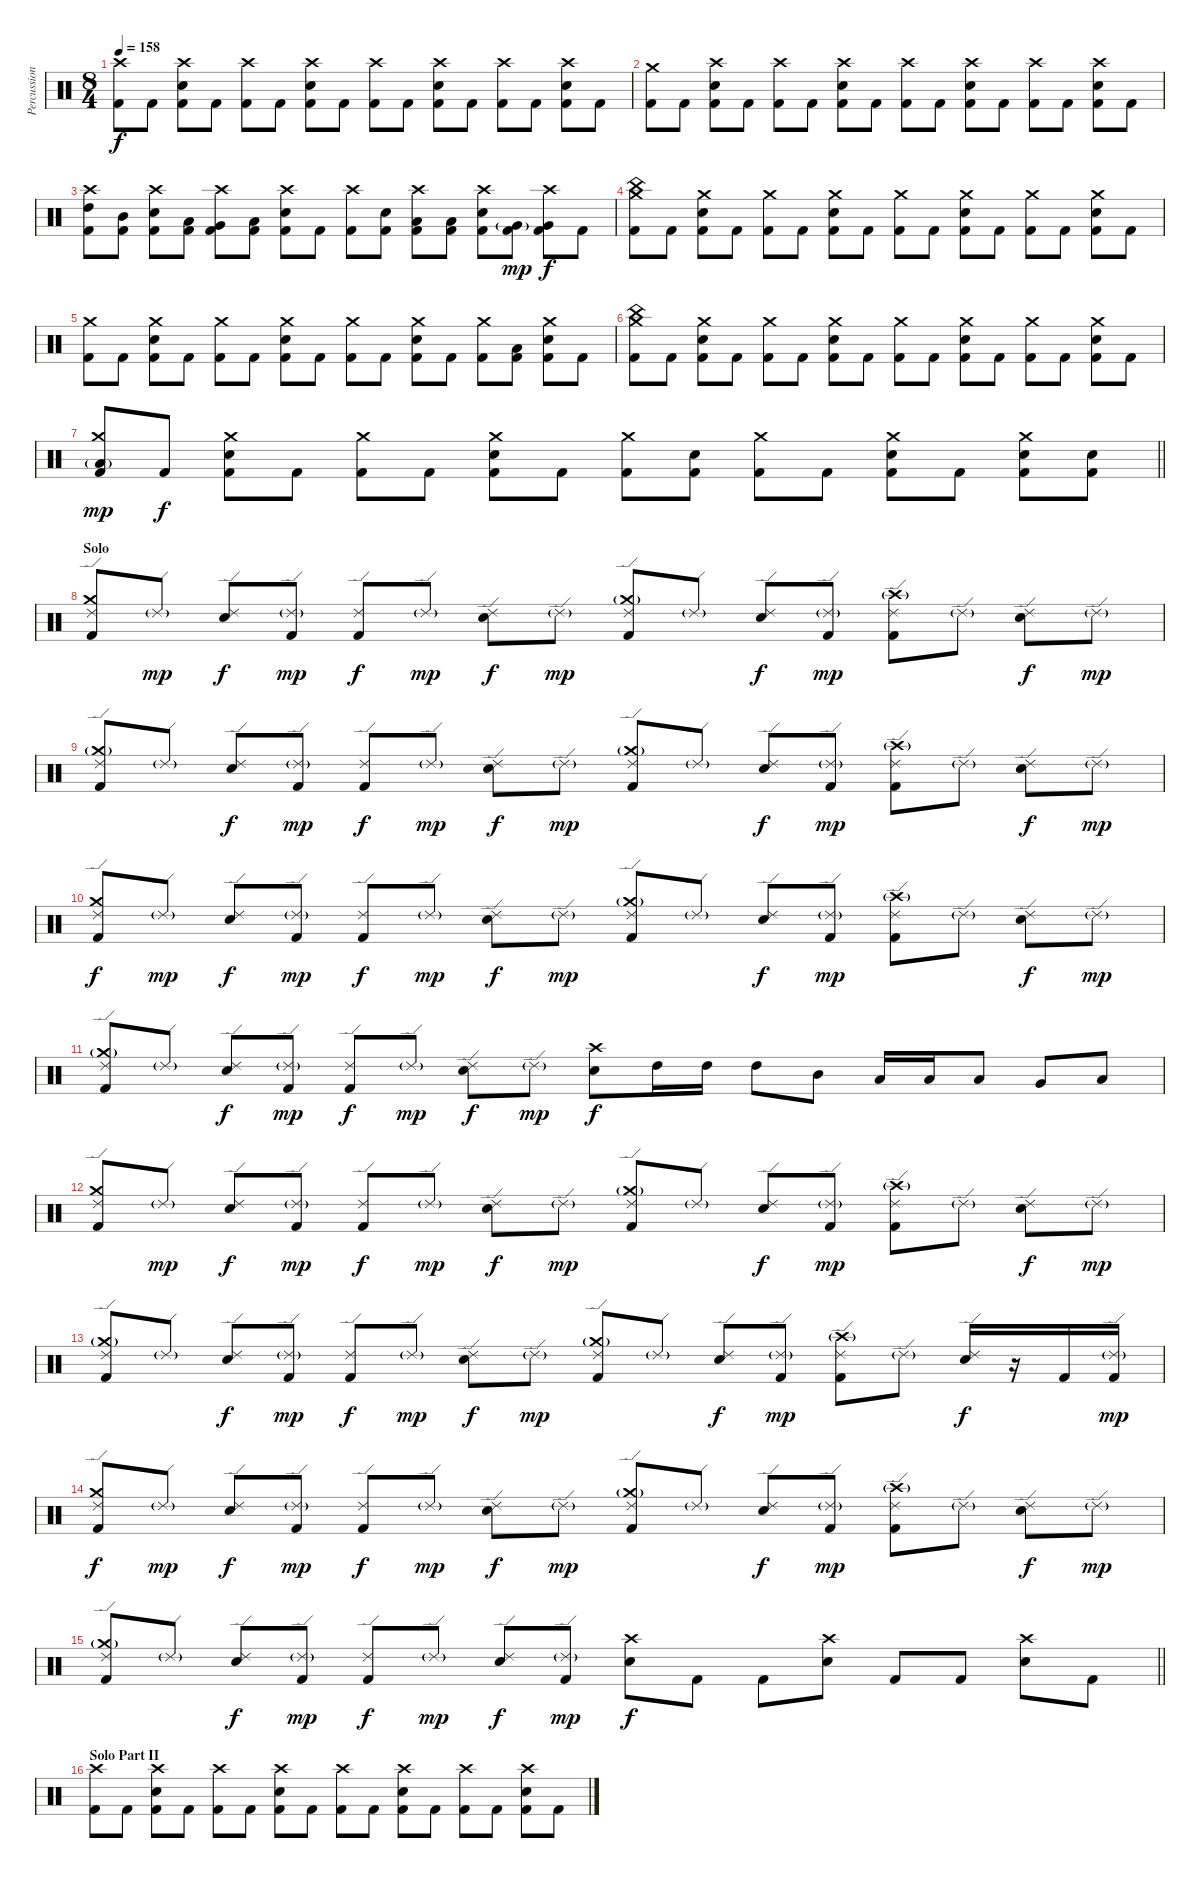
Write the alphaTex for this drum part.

\track ("Percussion" "Percussion") {instrument percussion}
\staff {score}
\articulation defaults
\ts (8 4)
\tempo 158
\clef neutral
\ks c
("Crash high (hit)" "Kick (hit) 2").8{dy f} "Kick (hit) 2".8 ("Crash high (hit)" "Electric Snare (hit)" "Kick (hit) 2").8 "Kick (hit) 2".8 ("Crash high (hit)" "Kick (hit) 2").8 "Kick (hit) 2".8 ("Crash high (hit)" "Electric Snare (hit)" "Kick (hit) 2").8 "Kick (hit) 2".8 ("Crash high (hit)" "Kick (hit) 2").8 "Kick (hit) 2".8 ("Crash high (hit)" "Electric Snare (hit)" "Kick (hit) 2").8 "Kick (hit) 2".8 ("Crash high (hit)" "Kick (hit) 2").8 "Kick (hit) 2".8 ("Crash high (hit)" "Electric Snare (hit)" "Kick (hit) 2").8 "Kick (hit) 2".8 |
("Crash medium (hit)" "Kick (hit) 2").8 "Kick (hit) 2".8 ("Crash high (hit)" "Electric Snare (hit)" "Kick (hit) 2").8 "Kick (hit) 2".8 ("Crash high (hit)" "Kick (hit) 2").8 "Kick (hit) 2".8 ("Crash high (hit)" "Electric Snare (hit)" "Kick (hit) 2").8 "Kick (hit) 2".8 ("Crash high (hit)" "Kick (hit) 2").8 "Kick (hit) 2".8 ("Crash high (hit)" "Electric Snare (hit)" "Kick (hit) 2").8 "Kick (hit) 2".8 ("Crash high (hit)" "Kick (hit) 2").8 "Kick (hit) 2".8 ("Crash high (hit)" "Electric Snare (hit)" "Kick (hit) 2").8 "Kick (hit) 2".8 |
("Crash high (hit)" "High Tom (hit)" "Kick (hit) 2").8 ("Mid Tom (hit)" "Kick (hit) 2").8 ("Crash high (hit)" "Electric Snare (hit)" "Kick (hit) 2").8 ("Low Tom (hit)" "Kick (hit) 2").8 ("Crash high (hit)" "Very Low Tom (hit)" "Kick (hit) 2").8 ("Low Floor Tom (hit)" "Kick (hit) 2").8 ("Crash high (hit)" "Electric Snare (hit)" "Kick (hit) 2").8 "Kick (hit) 2".8 ("Crash high (hit)" "Kick (hit) 2").8 ("Electric Snare (hit)" "Kick (hit) 2").8 ("Crash high (hit)" "Low Tom (hit)" "Kick (hit) 2").8 ("Low Tom (hit)" "Kick (hit) 2").8 ("Crash high (hit)" "Electric Snare (hit)" "Kick (hit) 2").8 ("Very Low Tom (hit)"{g} "Kick (hit) 2").8{dy mp} ("Crash high (hit)" "Very Low Tom (hit)" "Kick (hit) 2").8{dy f} "Kick (hit) 2".8 |
("Crash medium (hit)" "China (hit)" "Kick (hit) 2").8 "Kick (hit) 2".8 ("Crash medium (hit)" "Electric Snare (hit)" "Kick (hit) 2").8 "Kick (hit) 2".8 ("Crash medium (hit)" "Kick (hit) 2").8 "Kick (hit) 2".8 ("Crash medium (hit)" "Electric Snare (hit)" "Kick (hit) 2").8 "Kick (hit) 2".8 ("Crash medium (hit)" "Kick (hit) 2").8 "Kick (hit) 2".8 ("Crash medium (hit)" "Electric Snare (hit)" "Kick (hit) 2").8 "Kick (hit) 2".8 ("Crash medium (hit)" "Kick (hit) 2").8 "Kick (hit) 2".8 ("Crash medium (hit)" "Electric Snare (hit)" "Kick (hit) 2").8 "Kick (hit) 2".8 |
("Crash medium (hit)" "Kick (hit) 2").8 "Kick (hit) 2".8 ("Crash medium (hit)" "Electric Snare (hit)" "Kick (hit) 2").8 "Kick (hit) 2".8 ("Crash medium (hit)" "Kick (hit) 2").8 "Kick (hit) 2".8 ("Crash medium (hit)" "Electric Snare (hit)" "Kick (hit) 2").8 "Kick (hit) 2".8 ("Crash medium (hit)" "Kick (hit) 2").8 "Kick (hit) 2".8 ("Crash medium (hit)" "Electric Snare (hit)" "Kick (hit) 2").8 "Kick (hit) 2".8 ("Crash medium (hit)" "Kick (hit) 2").8 ("Low Tom (hit)" "Kick (hit) 2").8 ("Crash medium (hit)" "Electric Snare (hit)" "Kick (hit) 2").8 "Kick (hit) 2".8 |
("Crash medium (hit)" "China (hit)" "Kick (hit) 2").8 "Kick (hit) 2".8 ("Crash medium (hit)" "Electric Snare (hit)" "Kick (hit) 2").8 "Kick (hit) 2".8 ("Crash medium (hit)" "Kick (hit) 2").8 "Kick (hit) 2".8 ("Crash medium (hit)" "Electric Snare (hit)" "Kick (hit) 2").8 "Kick (hit) 2".8 ("Crash medium (hit)" "Kick (hit) 2").8 "Kick (hit) 2".8 ("Crash medium (hit)" "Electric Snare (hit)" "Kick (hit) 2").8 "Kick (hit) 2".8 ("Crash medium (hit)" "Kick (hit) 2").8 "Kick (hit) 2".8 ("Crash medium (hit)" "Electric Snare (hit)" "Kick (hit) 2").8 "Kick (hit) 2".8 |
\barLineRight lightlight
("Crash medium (hit)" "Low Tom (hit)"{g} "Kick (hit) 2").8{dy mp} "Kick (hit) 2".8{dy f} ("Crash medium (hit)" "Electric Snare (hit)" "Kick (hit) 2").8 "Kick (hit) 2".8 ("Crash medium (hit)" "Kick (hit) 2").8 "Kick (hit) 2".8 ("Crash medium (hit)" "Electric Snare (hit)" "Kick (hit) 2").8 "Kick (hit) 2".8 ("Crash medium (hit)" "Kick (hit) 2").8 ("Electric Snare (hit)" "Kick (hit) 2").8 ("Crash medium (hit)" "Kick (hit) 2").8 "Kick (hit) 2".8 ("Crash medium (hit)" "Electric Snare (hit)" "Kick (hit) 2").8 "Kick (hit) 2".8 ("Crash medium (hit)" "Electric Snare (hit)" "Kick (hit) 2").8 ("Electric Snare (hit)" "Kick (hit) 2").8 |
\section ("" "Solo")
("Crash medium (hit)" "Ride (edge) 2" "Kick (hit) 2").8 "Ride (edge) 2"{g}.8{dy mp} ("Ride (edge) 2" "Electric Snare (hit)").8{dy f} ("Ride (edge) 2"{g} "Kick (hit) 2").8{dy mp} ("Ride (edge) 2" "Kick (hit) 2").8{dy f} "Ride (edge) 2"{g}.8{dy mp} ("Ride (edge) 2" "Electric Snare (hit)").8{dy f} "Ride (edge) 2"{g}.8{dy mp} ("Crash medium (hit)"{g} "Ride (edge) 2" "Kick (hit) 2").8 "Ride (edge) 2"{g}.8 ("Ride (edge) 2" "Electric Snare (hit)").8{dy f} ("Ride (edge) 2"{g} "Kick (hit) 2").8{dy mp} ("Crash high (hit)"{g} "Ride (edge) 2" "Kick (hit) 2").8 "Ride (edge) 2"{g}.8 ("Ride (edge) 2" "Electric Snare (hit)").8{dy f} "Ride (edge) 2"{g}.8{dy mp} |
("Crash medium (hit)"{g} "Ride (edge) 2" "Kick (hit) 2").8 "Ride (edge) 2"{g}.8 ("Ride (edge) 2" "Electric Snare (hit)").8{dy f} ("Ride (edge) 2"{g} "Kick (hit) 2").8{dy mp} ("Ride (edge) 2" "Kick (hit) 2").8{dy f} "Ride (edge) 2"{g}.8{dy mp} ("Ride (edge) 2" "Electric Snare (hit)").8{dy f} "Ride (edge) 2"{g}.8{dy mp} ("Crash medium (hit)"{g} "Ride (edge) 2" "Kick (hit) 2").8 "Ride (edge) 2"{g}.8 ("Ride (edge) 2" "Electric Snare (hit)").8{dy f} ("Ride (edge) 2"{g} "Kick (hit) 2").8{dy mp} ("Crash high (hit)"{g} "Ride (edge) 2" "Kick (hit) 2").8 "Ride (edge) 2"{g}.8 ("Ride (edge) 2" "Electric Snare (hit)").8{dy f} "Ride (edge) 2"{g}.8{dy mp} |
("Crash medium (hit)" "Ride (edge) 2" "Kick (hit) 2").8{dy f} "Ride (edge) 2"{g}.8{dy mp} ("Ride (edge) 2" "Electric Snare (hit)").8{dy f} ("Ride (edge) 2"{g} "Kick (hit) 2").8{dy mp} ("Ride (edge) 2" "Kick (hit) 2").8{dy f} "Ride (edge) 2"{g}.8{dy mp} ("Ride (edge) 2" "Electric Snare (hit)").8{dy f} "Ride (edge) 2"{g}.8{dy mp} ("Crash medium (hit)"{g} "Ride (edge) 2" "Kick (hit) 2").8 "Ride (edge) 2"{g}.8 ("Ride (edge) 2" "Electric Snare (hit)").8{dy f} ("Ride (edge) 2"{g} "Kick (hit) 2").8{dy mp} ("Crash high (hit)"{g} "Ride (edge) 2" "Kick (hit) 2").8 "Ride (edge) 2"{g}.8 ("Ride (edge) 2" "Electric Snare (hit)").8{dy f} "Ride (edge) 2"{g}.8{dy mp} |
("Crash medium (hit)"{g} "Ride (edge) 2" "Kick (hit) 2").8 "Ride (edge) 2"{g}.8 ("Ride (edge) 2" "Electric Snare (hit)").8{dy f} ("Ride (edge) 2"{g} "Kick (hit) 2").8{dy mp} ("Ride (edge) 2" "Kick (hit) 2").8{dy f} "Ride (edge) 2"{g}.8{dy mp} ("Ride (edge) 2" "Electric Snare (hit)").8{dy f} "Ride (edge) 2"{g}.8{dy mp} ("Crash high (hit)" "Electric Snare (hit)").8{dy f} "High Tom (hit)".16 "High Tom (hit)".16 "High Tom (hit)".8 "Mid Tom (hit)".8 "Low Tom (hit)".16 "Low Tom (hit)".16 "Low Tom (hit)".8 "Very Low Tom (hit)".8 "Low Floor Tom (hit)".8 |
("Crash medium (hit)" "Ride (edge) 2" "Kick (hit) 2").8 "Ride (edge) 2"{g}.8{dy mp} ("Ride (edge) 2" "Electric Snare (hit)").8{dy f} ("Ride (edge) 2"{g} "Kick (hit) 2").8{dy mp} ("Ride (edge) 2" "Kick (hit) 2").8{dy f} "Ride (edge) 2"{g}.8{dy mp} ("Ride (edge) 2" "Electric Snare (hit)").8{dy f} "Ride (edge) 2"{g}.8{dy mp} ("Crash medium (hit)"{g} "Ride (edge) 2" "Kick (hit) 2").8 "Ride (edge) 2"{g}.8 ("Ride (edge) 2" "Electric Snare (hit)").8{dy f} ("Ride (edge) 2"{g} "Kick (hit) 2").8{dy mp} ("Crash high (hit)"{g} "Ride (edge) 2" "Kick (hit) 2").8 "Ride (edge) 2"{g}.8 ("Ride (edge) 2" "Electric Snare (hit)").8{dy f} "Ride (edge) 2"{g}.8{dy mp} |
("Crash medium (hit)"{g} "Ride (edge) 2" "Kick (hit) 2").8 "Ride (edge) 2"{g}.8 ("Ride (edge) 2" "Electric Snare (hit)").8{dy f} ("Ride (edge) 2"{g} "Kick (hit) 2").8{dy mp} ("Ride (edge) 2" "Kick (hit) 2").8{dy f} "Ride (edge) 2"{g}.8{dy mp} ("Ride (edge) 2" "Electric Snare (hit)").8{dy f} "Ride (edge) 2"{g}.8{dy mp} ("Crash medium (hit)"{g} "Ride (edge) 2" "Kick (hit) 2").8 "Ride (edge) 2"{g}.8 ("Ride (edge) 2" "Electric Snare (hit)").8{dy f} ("Ride (edge) 2"{g} "Kick (hit) 2").8{dy mp} ("Crash high (hit)"{g} "Ride (edge) 2" "Kick (hit) 2").8 "Ride (edge) 2"{g}.8 ("Ride (edge) 2" "Electric Snare (hit)").16{dy f} r.16 "Kick (hit) 2".16 ("Ride (edge) 2"{g} "Kick (hit) 2").16{dy mp} |
("Crash medium (hit)" "Ride (edge) 2" "Kick (hit) 2").8{dy f} "Ride (edge) 2"{g}.8{dy mp} ("Ride (edge) 2" "Electric Snare (hit)").8{dy f} ("Ride (edge) 2"{g} "Kick (hit) 2").8{dy mp} ("Ride (edge) 2" "Kick (hit) 2").8{dy f} "Ride (edge) 2"{g}.8{dy mp} ("Ride (edge) 2" "Electric Snare (hit)").8{dy f} "Ride (edge) 2"{g}.8{dy mp} ("Crash medium (hit)"{g} "Ride (edge) 2" "Kick (hit) 2").8 "Ride (edge) 2"{g}.8 ("Ride (edge) 2" "Electric Snare (hit)").8{dy f} ("Ride (edge) 2"{g} "Kick (hit) 2").8{dy mp} ("Crash high (hit)"{g} "Ride (edge) 2" "Kick (hit) 2").8 "Ride (edge) 2"{g}.8 ("Ride (edge) 2" "Electric Snare (hit)").8{dy f} "Ride (edge) 2"{g}.8{dy mp} |
\barLineRight lightlight
("Crash medium (hit)"{g} "Ride (edge) 2" "Kick (hit) 2").8 "Ride (edge) 2"{g}.8 ("Ride (edge) 2" "Electric Snare (hit)").8{dy f} ("Ride (edge) 2"{g} "Kick (hit) 2").8{dy mp} ("Ride (edge) 2" "Kick (hit) 2").8{dy f} "Ride (edge) 2"{g}.8{dy mp} ("Ride (edge) 2" "Electric Snare (hit)").8{dy f} ("Ride (edge) 2"{g} "Kick (hit) 2").8{dy mp} ("Crash high (hit)" "Electric Snare (hit)").8{dy f} "Kick (hit) 2".8 "Kick (hit) 2".8 ("Crash high (hit)" "Electric Snare (hit)").8 "Kick (hit) 2".8 "Kick (hit) 2".8 ("Crash high (hit)" "Electric Snare (hit)").8 "Kick (hit) 2".8 |
\section ("" "Solo Part II")
("Crash high (hit)" "Kick (hit) 2").8 "Kick (hit) 2".8 ("Crash high (hit)" "Electric Snare (hit)" "Kick (hit) 2").8 "Kick (hit) 2".8 ("Crash high (hit)" "Kick (hit) 2").8 "Kick (hit) 2".8 ("Crash high (hit)" "Electric Snare (hit)" "Kick (hit) 2").8 "Kick (hit) 2".8 ("Crash high (hit)" "Kick (hit) 2").8 "Kick (hit) 2".8 ("Crash high (hit)" "Electric Snare (hit)" "Kick (hit) 2").8 "Kick (hit) 2".8 ("Crash high (hit)" "Kick (hit) 2").8 "Kick (hit) 2".8 ("Crash high (hit)" "Electric Snare (hit)" "Kick (hit) 2").8 "Kick (hit) 2".8
